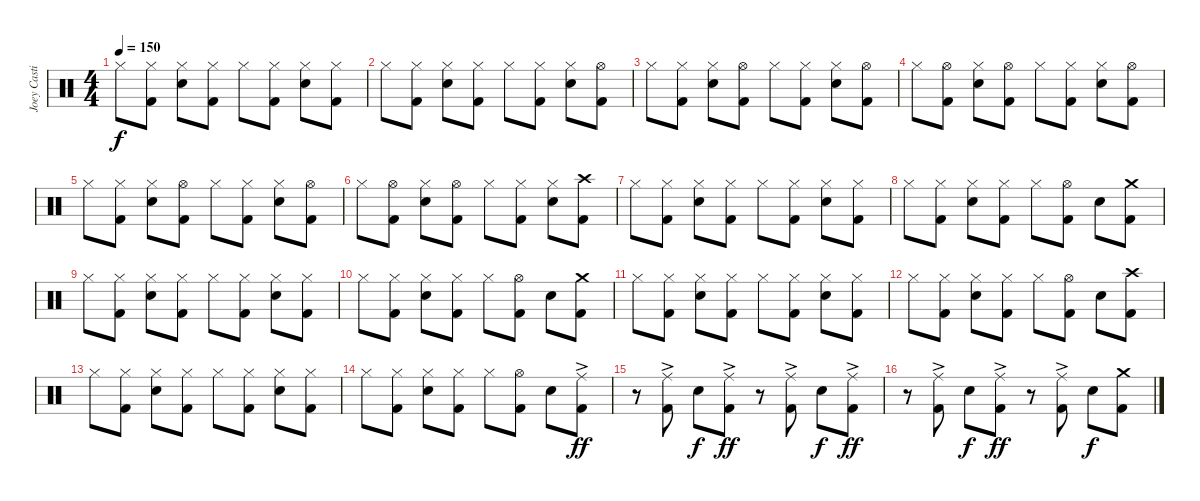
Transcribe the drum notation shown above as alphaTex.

\track ("Joey Castillo" "Joey Casti") {instrument percussion}
\staff {score}
\articulation defaults
\ts (4 4)
\tempo 150
\clef neutral
\ks c "Hi-Hat (closed)".8{dy f}
("Hi-Hat (closed)" "Kick (hit) 2").8 ("Hi-Hat (closed)" "Snare (hit) 2").8 ("Hi-Hat (closed)" "Kick (hit) 2").8 "Hi-Hat (closed)".8 ("Hi-Hat (closed)" "Kick (hit) 2").8 ("Hi-Hat (closed)" "Snare (hit) 2").8 ("Hi-Hat (closed)" "Kick (hit) 2").8 |
"Hi-Hat (closed)".8 ("Hi-Hat (closed)" "Kick (hit) 2").8 ("Hi-Hat (closed)" "Snare (hit) 2").8 ("Hi-Hat (closed)" "Kick (hit) 2").8 "Hi-Hat (closed)".8 ("Hi-Hat (closed)" "Kick (hit) 2").8 ("Hi-Hat (closed)" "Snare (hit) 2").8 ("Hi-Hat (open)" "Kick (hit) 2").8 |
"Hi-Hat (closed)".8 ("Hi-Hat (closed)" "Kick (hit) 2").8 ("Hi-Hat (closed)" "Snare (hit) 2").8 ("Hi-Hat (open)" "Kick (hit) 2").8 "Hi-Hat (closed)".8 ("Hi-Hat (closed)" "Kick (hit) 2").8 ("Hi-Hat (closed)" "Snare (hit) 2").8 ("Hi-Hat (open)" "Kick (hit) 2").8 |
"Hi-Hat (closed)".8 ("Hi-Hat (open)" "Kick (hit) 2").8 ("Hi-Hat (closed)" "Snare (hit) 2").8 ("Hi-Hat (open)" "Kick (hit) 2").8 "Hi-Hat (closed)".8 ("Hi-Hat (closed)" "Kick (hit) 2").8 ("Hi-Hat (closed)" "Snare (hit) 2").8 ("Hi-Hat (open)" "Kick (hit) 2").8 |
"Hi-Hat (closed)".8 ("Hi-Hat (closed)" "Kick (hit) 2").8 ("Hi-Hat (closed)" "Snare (hit) 2").8 ("Hi-Hat (open)" "Kick (hit) 2").8 "Hi-Hat (closed)".8 ("Hi-Hat (closed)" "Kick (hit) 2").8 ("Hi-Hat (closed)" "Snare (hit) 2").8 ("Hi-Hat (open)" "Kick (hit) 2").8 |
"Hi-Hat (closed)".8 ("Hi-Hat (open)" "Kick (hit) 2").8 ("Hi-Hat (closed)" "Snare (hit) 2").8 ("Hi-Hat (open)" "Kick (hit) 2").8 "Hi-Hat (closed)".8 ("Hi-Hat (closed)" "Kick (hit) 2").8 ("Hi-Hat (closed)" "Snare (hit) 2").8 ("Crash high (hit)" "Kick (hit) 2").8 |
"Hi-Hat (closed)".8 ("Hi-Hat (closed)" "Kick (hit) 2").8 ("Hi-Hat (closed)" "Snare (hit) 2").8 ("Hi-Hat (closed)" "Kick (hit) 2").8 "Hi-Hat (closed)".8 ("Hi-Hat (closed)" "Kick (hit) 2").8 ("Hi-Hat (closed)" "Snare (hit) 2").8 ("Hi-Hat (closed)" "Kick (hit) 2").8 |
"Hi-Hat (closed)".8 ("Hi-Hat (closed)" "Kick (hit) 2").8 ("Hi-Hat (closed)" "Snare (hit) 2").8 ("Hi-Hat (closed)" "Kick (hit) 2").8 "Hi-Hat (closed)".8 ("Hi-Hat (open)" "Kick (hit) 2").8 "Snare (hit) 2".8 ("Crash medium (hit)" "Kick (hit) 2").8 |
"Hi-Hat (closed)".8 ("Hi-Hat (closed)" "Kick (hit) 2").8 ("Hi-Hat (closed)" "Snare (hit) 2").8 ("Hi-Hat (closed)" "Kick (hit) 2").8 "Hi-Hat (closed)".8 ("Hi-Hat (closed)" "Kick (hit) 2").8 ("Hi-Hat (closed)" "Snare (hit) 2").8 ("Hi-Hat (closed)" "Kick (hit) 2").8 |
"Hi-Hat (closed)".8 ("Hi-Hat (closed)" "Kick (hit) 2").8 ("Hi-Hat (closed)" "Snare (hit) 2").8 ("Hi-Hat (closed)" "Kick (hit) 2").8 "Hi-Hat (closed)".8 ("Hi-Hat (open)" "Kick (hit) 2").8 "Snare (hit) 2".8 ("Crash medium (hit)" "Kick (hit) 2").8 |
"Hi-Hat (closed)".8 ("Hi-Hat (closed)" "Kick (hit) 2").8 ("Hi-Hat (closed)" "Snare (hit) 2").8 ("Hi-Hat (closed)" "Kick (hit) 2").8 "Hi-Hat (closed)".8 ("Hi-Hat (closed)" "Kick (hit) 2").8 ("Hi-Hat (closed)" "Snare (hit) 2").8 ("Hi-Hat (closed)" "Kick (hit) 2").8 |
"Hi-Hat (closed)".8 ("Hi-Hat (closed)" "Kick (hit) 2").8 ("Hi-Hat (closed)" "Snare (hit) 2").8 ("Hi-Hat (closed)" "Kick (hit) 2").8 "Hi-Hat (closed)".8 ("Hi-Hat (open)" "Kick (hit) 2").8 "Snare (hit) 2".8 ("Crash high (hit)" "Kick (hit) 2").8 |
"Hi-Hat (closed)".8 ("Hi-Hat (closed)" "Kick (hit) 2").8 ("Hi-Hat (closed)" "Snare (hit) 2").8 ("Hi-Hat (closed)" "Kick (hit) 2").8 "Hi-Hat (closed)".8 ("Hi-Hat (closed)" "Kick (hit) 2").8 ("Hi-Hat (closed)" "Snare (hit) 2").8 ("Hi-Hat (closed)" "Kick (hit) 2").8 |
"Hi-Hat (closed)".8 ("Hi-Hat (closed)" "Kick (hit) 2").8 ("Hi-Hat (closed)" "Snare (hit) 2").8 ("Hi-Hat (closed)" "Kick (hit) 2").8 "Hi-Hat (closed)".8 ("Hi-Hat (open)" "Kick (hit) 2").8 "Snare (hit) 2".8 ("Ride (middle)"{ac} "Kick (hit) 2").8{dy ff} |
r.8 ("Ride (middle)"{ac} "Kick (hit) 2").8 "Snare (hit) 2".8{dy f} ("Ride (middle)"{ac} "Kick (hit) 2").8{dy ff} r.8 ("Ride (middle)"{ac} "Kick (hit) 2").8 "Snare (hit) 2".8{dy f} ("Ride (middle)"{ac} "Kick (hit) 2").8{dy ff} |
r.8 ("Ride (middle)"{ac} "Kick (hit) 2").8 "Snare (hit) 2".8{dy f} ("Ride (middle)"{ac} "Kick (hit) 2").8{dy ff} r.8 ("Ride (middle)"{ac} "Kick (hit) 2").8 "Snare (hit) 2".8{dy f} ("Crash medium (hit)" "Kick (hit) 2").8
